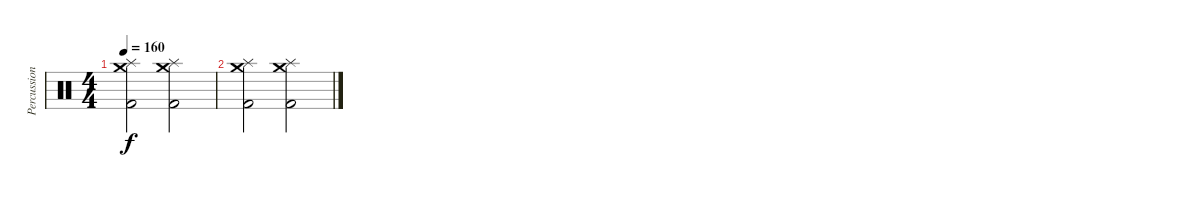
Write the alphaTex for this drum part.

\track ("Percussion" "Percussion") {instrument percussion}
\staff {score}
\articulation defaults
\ts (4 4)
\tempo 160
\clef neutral
\ks c
("Kick (hit) 2" "Splash (hit)" "Crash medium (hit)").2{dy f} ("Kick (hit) 2" "Splash (hit)" "Crash medium (hit)").2 |
("Kick (hit) 2" "Splash (hit)" "Crash medium (hit)").2 ("Kick (hit) 2" "Splash (hit)" "Crash medium (hit)").2
